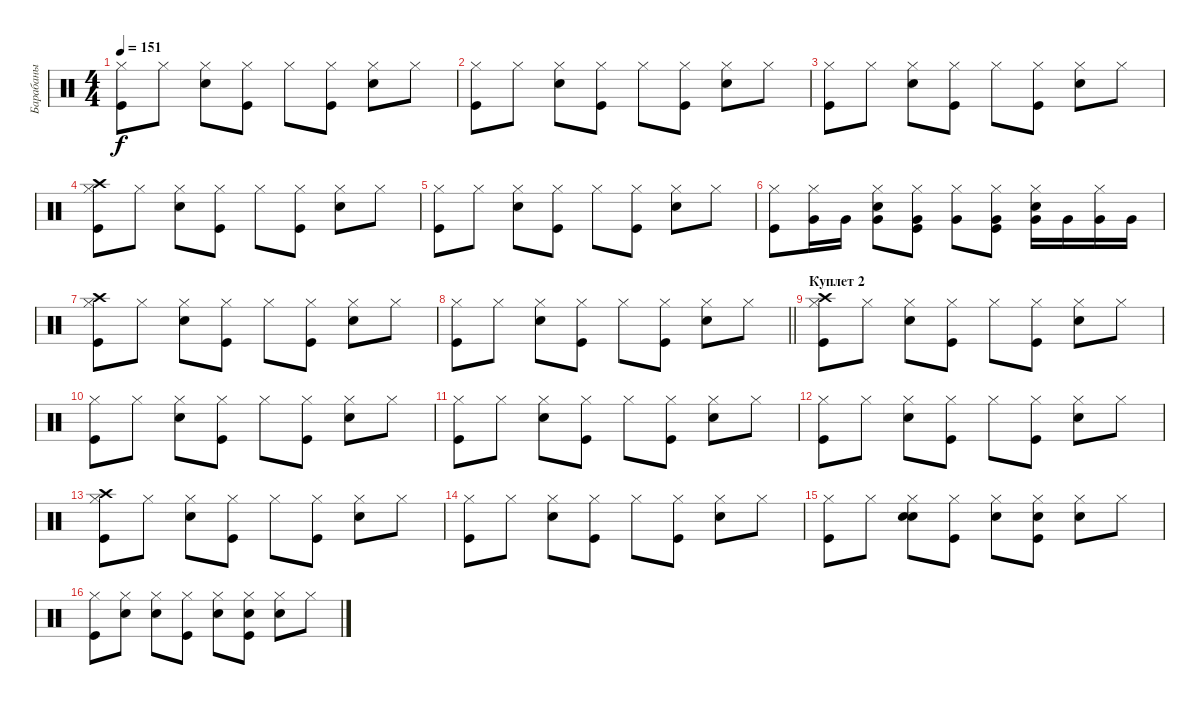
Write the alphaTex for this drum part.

\track ("Барабаны" "Барабаны") {instrument percussion}
\staff {score}
\articulation defaults
\ts (4 4)
\tempo 151
\clef neutral
\ks c
("Kick (hit)" "Hi-Hat (closed)").8{dy f} "Hi-Hat (closed)".8 ("Snare (hit) 2" "Hi-Hat (closed)").8 ("Kick (hit)" "Hi-Hat (closed)").8 "Hi-Hat (closed)".8 ("Kick (hit)" "Hi-Hat (closed)").8 ("Snare (hit) 2" "Hi-Hat (closed)").8 "Hi-Hat (closed)".8 |
("Kick (hit)" "Hi-Hat (closed)").8 "Hi-Hat (closed)".8 ("Snare (hit) 2" "Hi-Hat (closed)").8 ("Kick (hit)" "Hi-Hat (closed)").8 "Hi-Hat (closed)".8 ("Kick (hit)" "Hi-Hat (closed)").8 ("Snare (hit) 2" "Hi-Hat (closed)").8 "Hi-Hat (closed)".8 |
("Kick (hit)" "Hi-Hat (closed)").8 "Hi-Hat (closed)".8 ("Snare (hit) 2" "Hi-Hat (closed)").8 ("Kick (hit)" "Hi-Hat (closed)").8 "Hi-Hat (closed)".8 ("Kick (hit)" "Hi-Hat (closed)").8 ("Snare (hit) 2" "Hi-Hat (closed)").8 "Hi-Hat (closed)".8 |
("Kick (hit)" "Hi-Hat (closed)" "Crash high (hit)").8 "Hi-Hat (closed)".8 ("Snare (hit) 2" "Hi-Hat (closed)").8 ("Kick (hit)" "Hi-Hat (closed)").8 "Hi-Hat (closed)".8 ("Kick (hit)" "Hi-Hat (closed)").8 ("Snare (hit) 2" "Hi-Hat (closed)").8 "Hi-Hat (closed)".8 |
("Kick (hit)" "Hi-Hat (closed)").8 "Hi-Hat (closed)".8 ("Snare (hit) 2" "Hi-Hat (closed)").8 ("Kick (hit)" "Hi-Hat (closed)").8 "Hi-Hat (closed)".8 ("Kick (hit)" "Hi-Hat (closed)").8 ("Snare (hit) 2" "Hi-Hat (closed)").8 "Hi-Hat (closed)".8 |
("Kick (hit)" "Hi-Hat (closed)").8 ("Hi-Hat (closed)" "Very Low Tom (hit)").16 "Very Low Tom (hit)".16 ("Snare (hit) 2" "Hi-Hat (closed)" "Very Low Tom (hit)").8 ("Kick (hit)" "Hi-Hat (closed)" "Very Low Tom (hit)").8 ("Hi-Hat (closed)" "Very Low Tom (hit)").8 ("Kick (hit)" "Hi-Hat (closed)" "Very Low Tom (hit)").8 ("Snare (hit) 2" "Hi-Hat (closed)" "Very Low Tom (hit)").16 "Very Low Tom (hit)".16 ("Hi-Hat (closed)" "Very Low Tom (hit)").16 "Very Low Tom (hit)".16 |
("Kick (hit)" "Hi-Hat (closed)" "Crash high (hit)").8 "Hi-Hat (closed)".8 ("Snare (hit) 2" "Hi-Hat (closed)").8 ("Kick (hit)" "Hi-Hat (closed)").8 "Hi-Hat (closed)".8 ("Kick (hit)" "Hi-Hat (closed)").8 ("Snare (hit) 2" "Hi-Hat (closed)").8 "Hi-Hat (closed)".8 |
\barLineRight lightlight
("Kick (hit)" "Hi-Hat (closed)").8 "Hi-Hat (closed)".8 ("Snare (hit) 2" "Hi-Hat (closed)").8 ("Kick (hit)" "Hi-Hat (closed)").8 "Hi-Hat (closed)".8 ("Kick (hit)" "Hi-Hat (closed)").8 ("Snare (hit) 2" "Hi-Hat (closed)").8 "Hi-Hat (closed)".8 |
\section ("" "Куплет 2")
("Kick (hit)" "Hi-Hat (closed)" "Crash high (hit)").8 "Hi-Hat (closed)".8 ("Snare (hit) 2" "Hi-Hat (closed)").8 ("Kick (hit)" "Hi-Hat (closed)").8 "Hi-Hat (closed)".8 ("Kick (hit)" "Hi-Hat (closed)").8 ("Snare (hit) 2" "Hi-Hat (closed)").8 "Hi-Hat (closed)".8 |
("Kick (hit)" "Hi-Hat (closed)").8 "Hi-Hat (closed)".8 ("Snare (hit) 2" "Hi-Hat (closed)").8 ("Kick (hit)" "Hi-Hat (closed)").8 "Hi-Hat (closed)".8 ("Kick (hit)" "Hi-Hat (closed)").8 ("Snare (hit) 2" "Hi-Hat (closed)").8 "Hi-Hat (closed)".8 |
("Kick (hit)" "Hi-Hat (closed)").8 "Hi-Hat (closed)".8 ("Snare (hit) 2" "Hi-Hat (closed)").8 ("Kick (hit)" "Hi-Hat (closed)").8 "Hi-Hat (closed)".8 ("Kick (hit)" "Hi-Hat (closed)").8 ("Snare (hit) 2" "Hi-Hat (closed)").8 "Hi-Hat (closed)".8 |
("Kick (hit)" "Hi-Hat (closed)").8 "Hi-Hat (closed)".8 ("Snare (hit) 2" "Hi-Hat (closed)").8 ("Kick (hit)" "Hi-Hat (closed)").8 "Hi-Hat (closed)".8 ("Kick (hit)" "Hi-Hat (closed)").8 ("Snare (hit) 2" "Hi-Hat (closed)").8 "Hi-Hat (closed)".8 |
("Kick (hit)" "Hi-Hat (closed)" "Crash high (hit)").8 "Hi-Hat (closed)".8 ("Snare (hit) 2" "Hi-Hat (closed)").8 ("Kick (hit)" "Hi-Hat (closed)").8 "Hi-Hat (closed)".8 ("Kick (hit)" "Hi-Hat (closed)").8 ("Snare (hit) 2" "Hi-Hat (closed)").8 "Hi-Hat (closed)".8 |
("Kick (hit)" "Hi-Hat (closed)").8 "Hi-Hat (closed)".8 ("Snare (hit) 2" "Hi-Hat (closed)").8 ("Kick (hit)" "Hi-Hat (closed)").8 "Hi-Hat (closed)".8 ("Kick (hit)" "Hi-Hat (closed)").8 ("Snare (hit) 2" "Hi-Hat (closed)").8 "Hi-Hat (closed)".8 |
("Kick (hit)" "Hi-Hat (closed)").8 "Hi-Hat (closed)".8 ("Snare (hit) 2" "Hi-Hat (closed)" "Hand Clap (hit)").8 ("Kick (hit)" "Hi-Hat (closed)").8 ("Hi-Hat (closed)" "Hand Clap (hit)").8 ("Kick (hit)" "Hi-Hat (closed)" "Hand Clap (hit)").8 ("Snare (hit) 2" "Hi-Hat (closed)").8 "Hi-Hat (closed)".8 |
("Kick (hit)" "Hi-Hat (closed)").8 ("Hi-Hat (closed)" "Hand Clap (hit)").8 ("Snare (hit) 2" "Hi-Hat (closed)").8 ("Kick (hit)" "Hi-Hat (closed)").8 ("Hi-Hat (closed)" "Hand Clap (hit)").8 ("Kick (hit)" "Hi-Hat (closed)" "Hand Clap (hit)").8 ("Snare (hit) 2" "Hi-Hat (closed)").8 "Hi-Hat (closed)".8
